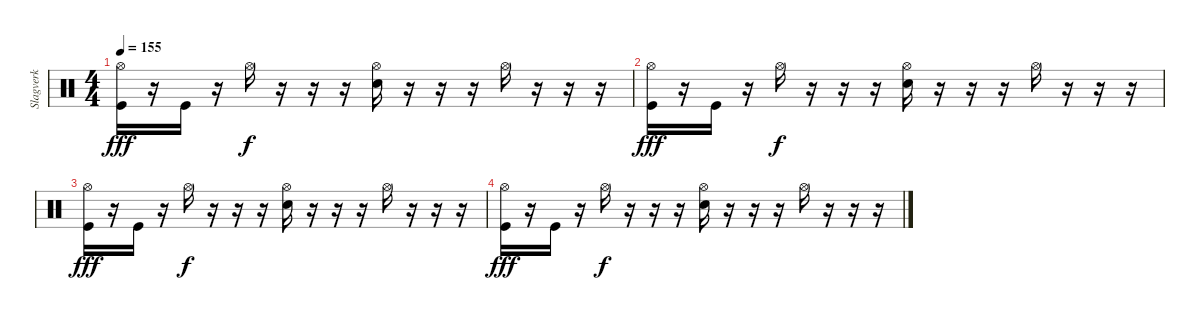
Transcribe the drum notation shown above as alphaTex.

\track ("Slagverk" "Slagverk") {instrument percussion}
\staff {score}
\articulation defaults
\ts (4 4)
\tempo 155
\clef neutral
\ks c
("Hi-Hat (open)" "Kick (hit)").16{dy fff} r.16 "Kick (hit)".16 r.16 "Hi-Hat (open)".16{dy f} r.16 r.16 r.16 ("Hi-Hat (open)" "Electric Snare (hit)").16 r.16 r.16 r.16 "Hi-Hat (open)".16 r.16 r.16 r.16 |
("Hi-Hat (open)" "Kick (hit)").16{dy fff} r.16 "Kick (hit)".16 r.16 "Hi-Hat (open)".16{dy f} r.16 r.16 r.16 ("Hi-Hat (open)" "Electric Snare (hit)").16 r.16 r.16 r.16 "Hi-Hat (open)".16 r.16 r.16 r.16 |
("Hi-Hat (open)" "Kick (hit)").16{dy fff} r.16 "Kick (hit)".16 r.16 "Hi-Hat (open)".16{dy f} r.16 r.16 r.16 ("Hi-Hat (open)" "Electric Snare (hit)").16 r.16 r.16 r.16 "Hi-Hat (open)".16 r.16 r.16 r.16 |
("Hi-Hat (open)" "Kick (hit)").16{dy fff} r.16 "Kick (hit)".16 r.16 "Hi-Hat (open)".16{dy f} r.16 r.16 r.16 ("Hi-Hat (open)" "Electric Snare (hit)").16 r.16 r.16 r.16 "Hi-Hat (open)".16 r.16 r.16 r.16
